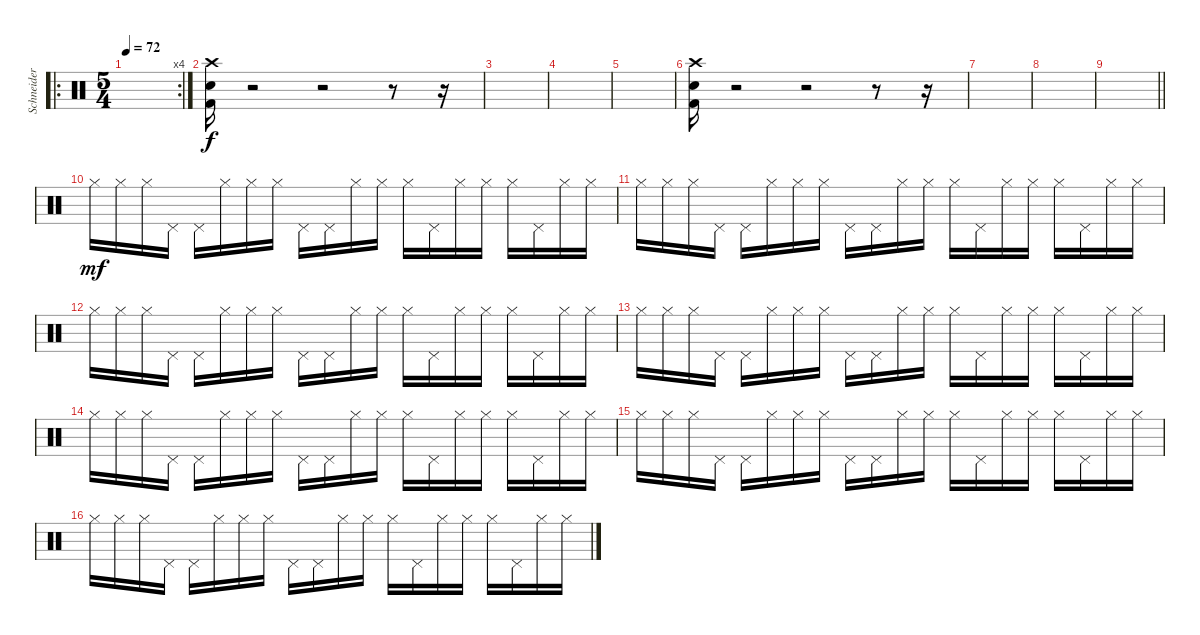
\track ("Schneider" "Schneider") {instrument percussion}
\staff {score}
\articulation defaults
\ro
\rc 4
\ts (5 4)
\tempo 72
\clef neutral
\ks c
|
("Crash high (hit)" "Snare (hit) 2" "Kick (hit) 2").16 r.2 r.2 r.8 r.16 |
|
|
|
("Crash high (hit)" "Snare (hit) 2" "Kick (hit) 2").16 r.2 r.2 r.8 r.16 |
|
|
\barLineRight lightlight
|
"Hi-Hat (closed)".16{dy mf} "Hi-Hat (closed)".16 "Hi-Hat (closed)".16 "Pedal Hi-Hat (hit)".16 "Pedal Hi-Hat (hit)".16 "Hi-Hat (closed)".16 "Hi-Hat (closed)".16 "Hi-Hat (closed)".16 "Pedal Hi-Hat (hit)".16 "Pedal Hi-Hat (hit)".16 "Hi-Hat (closed)".16 "Hi-Hat (closed)".16 "Hi-Hat (closed)".16 "Pedal Hi-Hat (hit)".16 "Hi-Hat (closed)".16 "Hi-Hat (closed)".16 "Hi-Hat (closed)".16 "Pedal Hi-Hat (hit)".16 "Hi-Hat (closed)".16 "Hi-Hat (closed)".16 |
"Hi-Hat (closed)".16 "Hi-Hat (closed)".16 "Hi-Hat (closed)".16 "Pedal Hi-Hat (hit)".16 "Pedal Hi-Hat (hit)".16 "Hi-Hat (closed)".16 "Hi-Hat (closed)".16 "Hi-Hat (closed)".16 "Pedal Hi-Hat (hit)".16 "Pedal Hi-Hat (hit)".16 "Hi-Hat (closed)".16 "Hi-Hat (closed)".16 "Hi-Hat (closed)".16 "Pedal Hi-Hat (hit)".16 "Hi-Hat (closed)".16 "Hi-Hat (closed)".16 "Hi-Hat (closed)".16 "Pedal Hi-Hat (hit)".16 "Hi-Hat (closed)".16 "Hi-Hat (closed)".16 |
"Hi-Hat (closed)".16 "Hi-Hat (closed)".16 "Hi-Hat (closed)".16 "Pedal Hi-Hat (hit)".16 "Pedal Hi-Hat (hit)".16 "Hi-Hat (closed)".16 "Hi-Hat (closed)".16 "Hi-Hat (closed)".16 "Pedal Hi-Hat (hit)".16 "Pedal Hi-Hat (hit)".16 "Hi-Hat (closed)".16 "Hi-Hat (closed)".16 "Hi-Hat (closed)".16 "Pedal Hi-Hat (hit)".16 "Hi-Hat (closed)".16 "Hi-Hat (closed)".16 "Hi-Hat (closed)".16 "Pedal Hi-Hat (hit)".16 "Hi-Hat (closed)".16 "Hi-Hat (closed)".16 |
"Hi-Hat (closed)".16 "Hi-Hat (closed)".16 "Hi-Hat (closed)".16 "Pedal Hi-Hat (hit)".16 "Pedal Hi-Hat (hit)".16 "Hi-Hat (closed)".16 "Hi-Hat (closed)".16 "Hi-Hat (closed)".16 "Pedal Hi-Hat (hit)".16 "Pedal Hi-Hat (hit)".16 "Hi-Hat (closed)".16 "Hi-Hat (closed)".16 "Hi-Hat (closed)".16 "Pedal Hi-Hat (hit)".16 "Hi-Hat (closed)".16 "Hi-Hat (closed)".16 "Hi-Hat (closed)".16 "Pedal Hi-Hat (hit)".16 "Hi-Hat (closed)".16 "Hi-Hat (closed)".16 |
"Hi-Hat (closed)".16 "Hi-Hat (closed)".16 "Hi-Hat (closed)".16 "Pedal Hi-Hat (hit)".16 "Pedal Hi-Hat (hit)".16 "Hi-Hat (closed)".16 "Hi-Hat (closed)".16 "Hi-Hat (closed)".16 "Pedal Hi-Hat (hit)".16 "Pedal Hi-Hat (hit)".16 "Hi-Hat (closed)".16 "Hi-Hat (closed)".16 "Hi-Hat (closed)".16 "Pedal Hi-Hat (hit)".16 "Hi-Hat (closed)".16 "Hi-Hat (closed)".16 "Hi-Hat (closed)".16 "Pedal Hi-Hat (hit)".16 "Hi-Hat (closed)".16 "Hi-Hat (closed)".16 |
"Hi-Hat (closed)".16 "Hi-Hat (closed)".16 "Hi-Hat (closed)".16 "Pedal Hi-Hat (hit)".16 "Pedal Hi-Hat (hit)".16 "Hi-Hat (closed)".16 "Hi-Hat (closed)".16 "Hi-Hat (closed)".16 "Pedal Hi-Hat (hit)".16 "Pedal Hi-Hat (hit)".16 "Hi-Hat (closed)".16 "Hi-Hat (closed)".16 "Hi-Hat (closed)".16 "Pedal Hi-Hat (hit)".16 "Hi-Hat (closed)".16 "Hi-Hat (closed)".16 "Hi-Hat (closed)".16 "Pedal Hi-Hat (hit)".16 "Hi-Hat (closed)".16 "Hi-Hat (closed)".16 |
"Hi-Hat (closed)".16 "Hi-Hat (closed)".16 "Hi-Hat (closed)".16 "Pedal Hi-Hat (hit)".16 "Pedal Hi-Hat (hit)".16 "Hi-Hat (closed)".16 "Hi-Hat (closed)".16 "Hi-Hat (closed)".16 "Pedal Hi-Hat (hit)".16 "Pedal Hi-Hat (hit)".16 "Hi-Hat (closed)".16 "Hi-Hat (closed)".16 "Hi-Hat (closed)".16 "Pedal Hi-Hat (hit)".16 "Hi-Hat (closed)".16 "Hi-Hat (closed)".16 "Hi-Hat (closed)".16 "Pedal Hi-Hat (hit)".16 "Hi-Hat (closed)".16 "Hi-Hat (closed)".16
